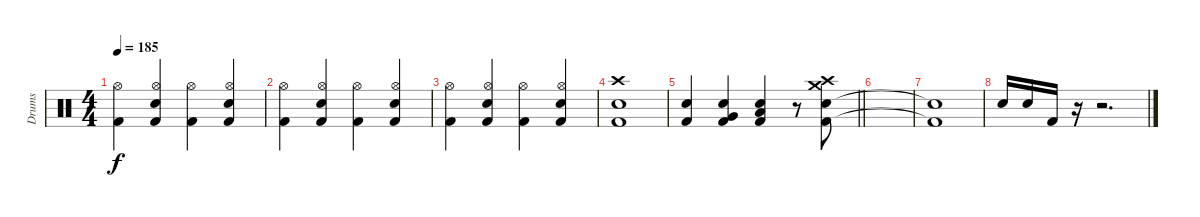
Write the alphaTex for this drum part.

\track ("Drums" "Drums") {instrument percussion bank 1}
\staff {score}
\articulation defaults
\ts (4 4)
\tempo 185
\clef neutral
\ks c
("Kick (hit) 2" "Hi-Hat (open)").4{dy f} ("Kick (hit) 2" "Snare (hit) 2" "Hi-Hat (open)").4 ("Kick (hit) 2" "Hi-Hat (open)").4 ("Kick (hit) 2" "Snare (hit) 2" "Hi-Hat (open)").4 |
("Kick (hit) 2" "Hi-Hat (open)").4 ("Kick (hit) 2" "Snare (hit) 2" "Hi-Hat (open)").4 ("Kick (hit) 2" "Hi-Hat (open)").4 ("Kick (hit) 2" "Snare (hit) 2" "Hi-Hat (open)").4 |
("Kick (hit) 2" "Hi-Hat (open)").4 ("Kick (hit) 2" "Snare (hit) 2" "Hi-Hat (open)").4 ("Kick (hit) 2" "Hi-Hat (open)").4 ("Kick (hit) 2" "Snare (hit) 2" "Hi-Hat (open)").4 |
("Kick (hit) 2" "Snare (hit) 2" "Crash high (hit)").1 |
\barLineRight lightlight
("Snare (hit) 2" "Kick (hit) 2").4 ("Kick (hit) 2" "Very Low Tom (hit)" "Snare (hit) 2").4 ("Low Tom (hit)" "Snare (hit) 2" "Kick (hit) 2").4 r.8 ("Snare (hit) 2" "Kick (hit) 2" "Crash medium (hit)" "Crash high (hit)").8 |
|
("Snare (hit) 2"{t} "Kick (hit) 2"{t}).1 |
"Snare (hit) 2".16 "Snare (hit) 2".16 "Kick (hit) 2".16 r.16 r.2{d}
